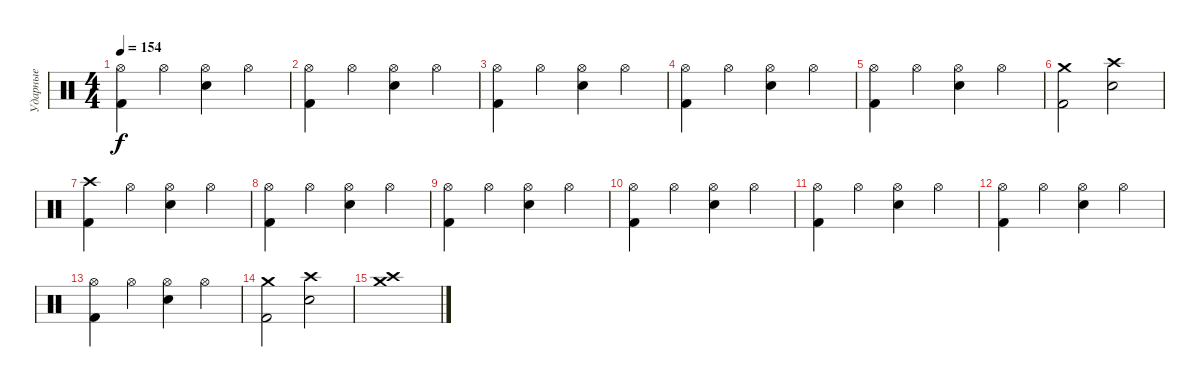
\track ("Ударные" "Ударные") {instrument percussion}
\staff {score}
\articulation defaults
\ts (4 4)
\tempo 154
\clef neutral
\ks c
("Hi-Hat (open)" "Kick (hit) 2").4{dy f} "Hi-Hat (open)".4 ("Hi-Hat (open)" "Snare (hit) 2").4 "Hi-Hat (open)".4 |
("Hi-Hat (open)" "Kick (hit) 2").4 "Hi-Hat (open)".4 ("Hi-Hat (open)" "Snare (hit) 2").4 "Hi-Hat (open)".4 |
("Hi-Hat (open)" "Kick (hit) 2").4 "Hi-Hat (open)".4 ("Hi-Hat (open)" "Snare (hit) 2").4 "Hi-Hat (open)".4 |
("Hi-Hat (open)" "Kick (hit) 2").4 "Hi-Hat (open)".4 ("Hi-Hat (open)" "Snare (hit) 2").4 "Hi-Hat (open)".4 |
("Hi-Hat (open)" "Kick (hit) 2").4 "Hi-Hat (open)".4 ("Hi-Hat (open)" "Snare (hit) 2").4 "Hi-Hat (open)".4 |
("Crash medium (hit)" "Kick (hit) 2").2 ("Crash high (hit)" "Snare (hit) 2").2 |
("Crash high (hit)" "Kick (hit) 2").4 "Hi-Hat (open)".4 ("Hi-Hat (open)" "Snare (hit) 2").4 "Hi-Hat (open)".4 |
("Hi-Hat (open)" "Kick (hit) 2").4 "Hi-Hat (open)".4 ("Hi-Hat (open)" "Snare (hit) 2").4 "Hi-Hat (open)".4 |
("Hi-Hat (open)" "Kick (hit) 2").4 "Hi-Hat (open)".4 ("Hi-Hat (open)" "Snare (hit) 2").4 "Hi-Hat (open)".4 |
("Hi-Hat (open)" "Kick (hit) 2").4 "Hi-Hat (open)".4 ("Hi-Hat (open)" "Snare (hit) 2").4 "Hi-Hat (open)".4 |
("Hi-Hat (open)" "Kick (hit) 2").4 "Hi-Hat (open)".4 ("Hi-Hat (open)" "Snare (hit) 2").4 "Hi-Hat (open)".4 |
("Hi-Hat (open)" "Kick (hit) 2").4 "Hi-Hat (open)".4 ("Hi-Hat (open)" "Snare (hit) 2").4 "Hi-Hat (open)".4 |
("Hi-Hat (open)" "Kick (hit) 2").4 "Hi-Hat (open)".4 ("Hi-Hat (open)" "Snare (hit) 2").4 "Hi-Hat (open)".4 |
("Crash medium (hit)" "Kick (hit) 2").2 ("Crash high (hit)" "Snare (hit) 2").2 |
("Crash medium (hit)" "Crash high (hit)").1
